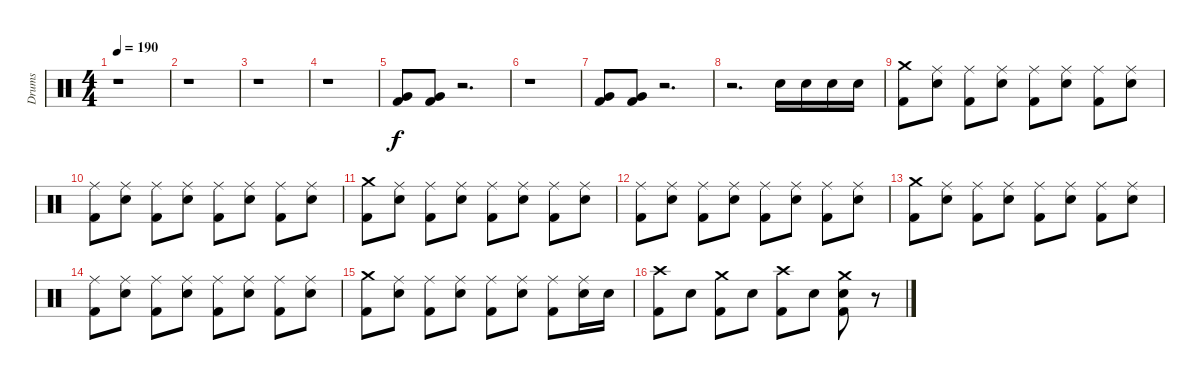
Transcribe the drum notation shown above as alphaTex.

\track ("Drums" "Drums") {instrument percussion}
\staff {score}
\articulation defaults
\ts (4 4)
\tempo 190
\clef neutral
\ks c
r.1{dy f} |
r.1 |
r.1 |
r.1 |
("Very Low Tom (hit)" "Kick (hit) 2").8 ("Very Low Tom (hit)" "Kick (hit) 2").8 r.2{d} |
r.1 |
("Very Low Tom (hit)" "Kick (hit) 2").8 ("Very Low Tom (hit)" "Kick (hit) 2").8 r.2{d} |
r.2{d} "Electric Snare (hit)".16 "Electric Snare (hit)".16 "Electric Snare (hit)".16 "Electric Snare (hit)".16 |
("Kick (hit) 2" "Crash medium (hit)").8 ("Electric Snare (hit)" "Ride (middle)").8 ("Kick (hit) 2" "Ride (middle)").8 ("Electric Snare (hit)" "Ride (middle)").8 ("Kick (hit) 2" "Ride (middle)").8 ("Electric Snare (hit)" "Ride (middle)").8 ("Kick (hit) 2" "Ride (middle)").8 ("Electric Snare (hit)" "Ride (middle)").8 |
("Kick (hit) 2" "Ride (middle)").8 ("Electric Snare (hit)" "Ride (middle)").8 ("Kick (hit) 2" "Ride (middle)").8 ("Electric Snare (hit)" "Ride (middle)").8 ("Kick (hit) 2" "Ride (middle)").8 ("Electric Snare (hit)" "Ride (middle)").8 ("Kick (hit) 2" "Ride (middle)").8 ("Electric Snare (hit)" "Ride (middle)").8 |
("Kick (hit) 2" "Crash medium (hit)").8 ("Electric Snare (hit)" "Ride (middle)").8 ("Kick (hit) 2" "Ride (middle)").8 ("Electric Snare (hit)" "Ride (middle)").8 ("Kick (hit) 2" "Ride (middle)").8 ("Electric Snare (hit)" "Ride (middle)").8 ("Kick (hit) 2" "Ride (middle)").8 ("Electric Snare (hit)" "Ride (middle)").8 |
("Kick (hit) 2" "Ride (middle)").8 ("Electric Snare (hit)" "Ride (middle)").8 ("Kick (hit) 2" "Ride (middle)").8 ("Electric Snare (hit)" "Ride (middle)").8 ("Kick (hit) 2" "Ride (middle)").8 ("Electric Snare (hit)" "Ride (middle)").8 ("Kick (hit) 2" "Ride (middle)").8 ("Electric Snare (hit)" "Ride (middle)").8 |
("Kick (hit) 2" "Crash medium (hit)").8 ("Electric Snare (hit)" "Ride (middle)").8 ("Kick (hit) 2" "Ride (middle)").8 ("Electric Snare (hit)" "Ride (middle)").8 ("Kick (hit) 2" "Ride (middle)").8 ("Electric Snare (hit)" "Ride (middle)").8 ("Kick (hit) 2" "Ride (middle)").8 ("Electric Snare (hit)" "Ride (middle)").8 |
("Kick (hit) 2" "Ride (middle)").8 ("Electric Snare (hit)" "Ride (middle)").8 ("Kick (hit) 2" "Ride (middle)").8 ("Electric Snare (hit)" "Ride (middle)").8 ("Kick (hit) 2" "Ride (middle)").8 ("Electric Snare (hit)" "Ride (middle)").8 ("Kick (hit) 2" "Ride (middle)").8 ("Electric Snare (hit)" "Ride (middle)").8 |
("Kick (hit) 2" "Crash medium (hit)").8 ("Electric Snare (hit)" "Ride (middle)").8 ("Kick (hit) 2" "Ride (middle)").8 ("Electric Snare (hit)" "Ride (middle)").8 ("Kick (hit) 2" "Ride (middle)").8 ("Electric Snare (hit)" "Ride (middle)").8 ("Kick (hit) 2" "Ride (middle)").8 ("Electric Snare (hit)" "Ride (middle)").16 "Electric Snare (hit)".16 |
("Kick (hit) 2" "Crash high (hit)").8 "Electric Snare (hit)".8 ("Kick (hit) 2" "Crash medium (hit)").8 "Electric Snare (hit)".8 ("Kick (hit) 2" "Crash high (hit)").8 "Electric Snare (hit)".8 ("Electric Snare (hit)" "Kick (hit) 2" "Crash medium (hit)").8 r.8
